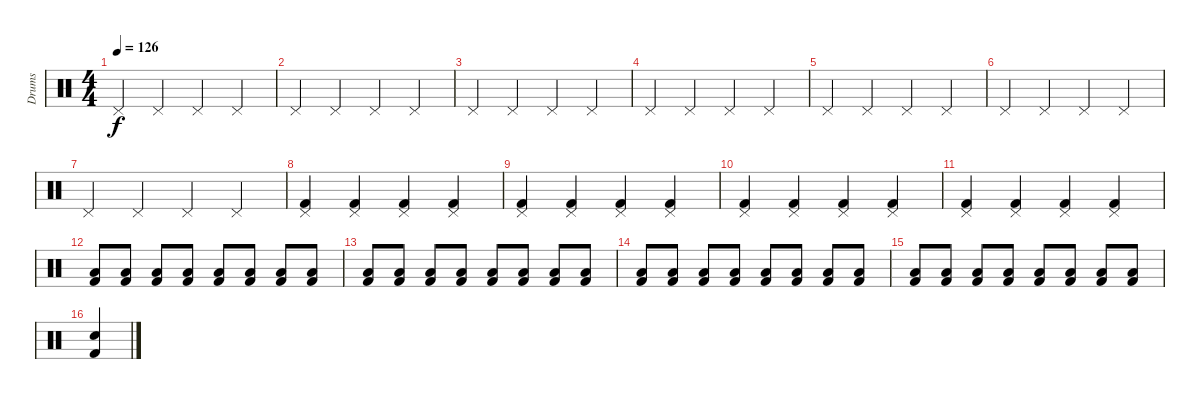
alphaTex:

\track ("Drums" "Drums") {instrument percussion}
\staff {score}
\articulation defaults
\ts (4 4)
\tempo 126
\clef neutral
\ks c "Pedal Hi-Hat (hit)".4{dy f} "Pedal Hi-Hat (hit)".4 "Pedal Hi-Hat (hit)".4 "Pedal Hi-Hat (hit)".4
|
"Pedal Hi-Hat (hit)".4 "Pedal Hi-Hat (hit)".4 "Pedal Hi-Hat (hit)".4 "Pedal Hi-Hat (hit)".4 |
"Pedal Hi-Hat (hit)".4 "Pedal Hi-Hat (hit)".4 "Pedal Hi-Hat (hit)".4 "Pedal Hi-Hat (hit)".4 |
"Pedal Hi-Hat (hit)".4 "Pedal Hi-Hat (hit)".4 "Pedal Hi-Hat (hit)".4 "Pedal Hi-Hat (hit)".4 |
"Pedal Hi-Hat (hit)".4 "Pedal Hi-Hat (hit)".4 "Pedal Hi-Hat (hit)".4 "Pedal Hi-Hat (hit)".4 |
"Pedal Hi-Hat (hit)".4 "Pedal Hi-Hat (hit)".4 "Pedal Hi-Hat (hit)".4 "Pedal Hi-Hat (hit)".4 |
"Pedal Hi-Hat (hit)".4 "Pedal Hi-Hat (hit)".4 "Pedal Hi-Hat (hit)".4 "Pedal Hi-Hat (hit)".4 |
("Pedal Hi-Hat (hit)" "Kick (hit) 2").4 ("Pedal Hi-Hat (hit)" "Kick (hit) 2").4 ("Pedal Hi-Hat (hit)" "Kick (hit) 2").4 ("Pedal Hi-Hat (hit)" "Kick (hit) 2").4 |
("Pedal Hi-Hat (hit)" "Kick (hit) 2").4 ("Pedal Hi-Hat (hit)" "Kick (hit) 2").4 ("Pedal Hi-Hat (hit)" "Kick (hit) 2").4 ("Pedal Hi-Hat (hit)" "Kick (hit) 2").4 |
("Pedal Hi-Hat (hit)" "Kick (hit) 2").4 ("Pedal Hi-Hat (hit)" "Kick (hit) 2").4 ("Pedal Hi-Hat (hit)" "Kick (hit) 2").4 ("Pedal Hi-Hat (hit)" "Kick (hit) 2").4 |
("Pedal Hi-Hat (hit)" "Kick (hit) 2").4 ("Pedal Hi-Hat (hit)" "Kick (hit) 2").4 ("Pedal Hi-Hat (hit)" "Kick (hit) 2").4 ("Pedal Hi-Hat (hit)" "Kick (hit) 2").4 |
("Low Floor Tom (hit)" "Kick (hit) 2").8 ("Low Floor Tom (hit)" "Kick (hit) 2").8 ("Low Floor Tom (hit)" "Kick (hit) 2").8 ("Low Floor Tom (hit)" "Kick (hit) 2").8 ("Low Floor Tom (hit)" "Kick (hit) 2").8 ("Low Floor Tom (hit)" "Kick (hit) 2").8 ("Low Floor Tom (hit)" "Kick (hit) 2").8 ("Low Floor Tom (hit)" "Kick (hit) 2").8 |
("Low Floor Tom (hit)" "Kick (hit) 2").8 ("Low Floor Tom (hit)" "Kick (hit) 2").8 ("Low Floor Tom (hit)" "Kick (hit) 2").8 ("Low Floor Tom (hit)" "Kick (hit) 2").8 ("Low Floor Tom (hit)" "Kick (hit) 2").8 ("Low Floor Tom (hit)" "Kick (hit) 2").8 ("Low Floor Tom (hit)" "Kick (hit) 2").8 ("Low Floor Tom (hit)" "Kick (hit) 2").8 |
("Low Floor Tom (hit)" "Kick (hit) 2").8 ("Low Floor Tom (hit)" "Kick (hit) 2").8 ("Low Floor Tom (hit)" "Kick (hit) 2").8 ("Low Floor Tom (hit)" "Kick (hit) 2").8 ("Low Floor Tom (hit)" "Kick (hit) 2").8 ("Low Floor Tom (hit)" "Kick (hit) 2").8 ("Low Floor Tom (hit)" "Kick (hit) 2").8 ("Low Floor Tom (hit)" "Kick (hit) 2").8 |
("Low Floor Tom (hit)" "Kick (hit) 2").8 ("Low Floor Tom (hit)" "Kick (hit) 2").8 ("Low Floor Tom (hit)" "Kick (hit) 2").8 ("Low Floor Tom (hit)" "Kick (hit) 2").8 ("Low Floor Tom (hit)" "Kick (hit) 2").8 ("Low Floor Tom (hit)" "Kick (hit) 2").8 ("Low Floor Tom (hit)" "Kick (hit) 2").8 ("Low Floor Tom (hit)" "Kick (hit) 2").8 |
("Snare (hit) 2" "Kick (hit) 2").4
